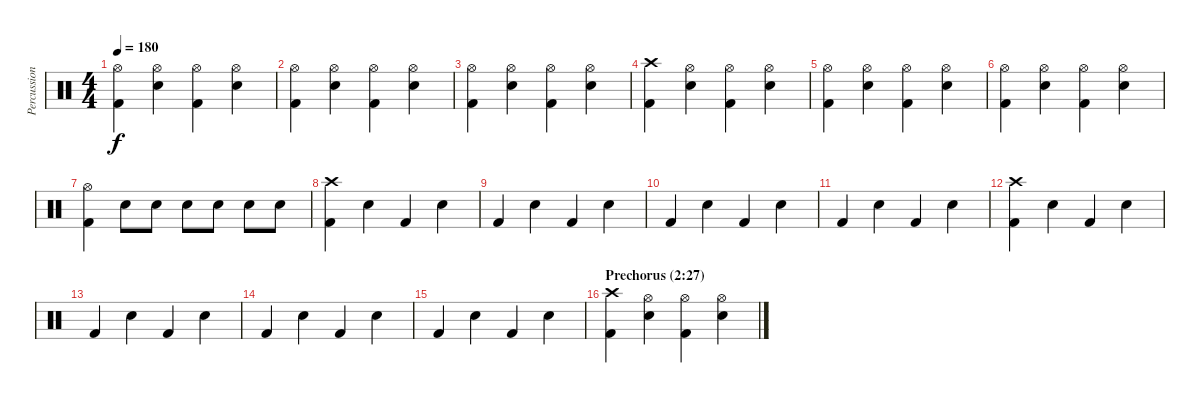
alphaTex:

\track ("Percussion" "Percussion") {instrument percussion}
\staff {score}
\articulation defaults
\ts (4 4)
\tempo 180
\clef neutral
\ks c
("Hi-Hat (open)" "Kick (hit) 2").4{dy f} ("Hi-Hat (open)" "Electric Snare (hit)").4 ("Hi-Hat (open)" "Kick (hit) 2").4 ("Hi-Hat (open)" "Electric Snare (hit)").4 |
("Hi-Hat (open)" "Kick (hit) 2").4 ("Hi-Hat (open)" "Electric Snare (hit)").4 ("Hi-Hat (open)" "Kick (hit) 2").4 ("Hi-Hat (open)" "Electric Snare (hit)").4 |
("Hi-Hat (open)" "Kick (hit) 2").4 ("Hi-Hat (open)" "Electric Snare (hit)").4 ("Hi-Hat (open)" "Kick (hit) 2").4 ("Hi-Hat (open)" "Electric Snare (hit)").4 |
("Crash high (hit)" "Kick (hit) 2").4 ("Hi-Hat (open)" "Electric Snare (hit)").4 ("Hi-Hat (open)" "Kick (hit) 2").4 ("Hi-Hat (open)" "Electric Snare (hit)").4 |
("Hi-Hat (open)" "Kick (hit) 2").4 ("Hi-Hat (open)" "Electric Snare (hit)").4 ("Hi-Hat (open)" "Kick (hit) 2").4 ("Hi-Hat (open)" "Electric Snare (hit)").4 |
("Hi-Hat (open)" "Kick (hit) 2").4 ("Hi-Hat (open)" "Electric Snare (hit)").4 ("Hi-Hat (open)" "Kick (hit) 2").4 ("Hi-Hat (open)" "Electric Snare (hit)").4 |
("Hi-Hat (open)" "Kick (hit) 2").4 "Electric Snare (hit)".8 "Electric Snare (hit)".8 "Electric Snare (hit)".8 "Electric Snare (hit)".8 "Electric Snare (hit)".8 "Electric Snare (hit)".8 |
("Crash high (hit)" "Kick (hit) 2").4 "Electric Snare (hit)".4 "Kick (hit) 2".4 "Electric Snare (hit)".4 |
"Kick (hit) 2".4 "Electric Snare (hit)".4 "Kick (hit) 2".4 "Electric Snare (hit)".4 |
"Kick (hit) 2".4 "Electric Snare (hit)".4 "Kick (hit) 2".4 "Electric Snare (hit)".4 |
"Kick (hit) 2".4 "Electric Snare (hit)".4 "Kick (hit) 2".4 "Electric Snare (hit)".4 |
("Crash high (hit)" "Kick (hit) 2").4 "Electric Snare (hit)".4 "Kick (hit) 2".4 "Electric Snare (hit)".4 |
"Kick (hit) 2".4 "Electric Snare (hit)".4 "Kick (hit) 2".4 "Electric Snare (hit)".4 |
"Kick (hit) 2".4 "Electric Snare (hit)".4 "Kick (hit) 2".4 "Electric Snare (hit)".4 |
"Kick (hit) 2".4 "Electric Snare (hit)".4 "Kick (hit) 2".4 "Electric Snare (hit)".4 |
\section ("" "Prechorus (2:27)")
("Crash high (hit)" "Kick (hit) 2").4 ("Hi-Hat (open)" "Electric Snare (hit)").4 ("Hi-Hat (open)" "Kick (hit) 2").4 ("Hi-Hat (open)" "Electric Snare (hit)").4
